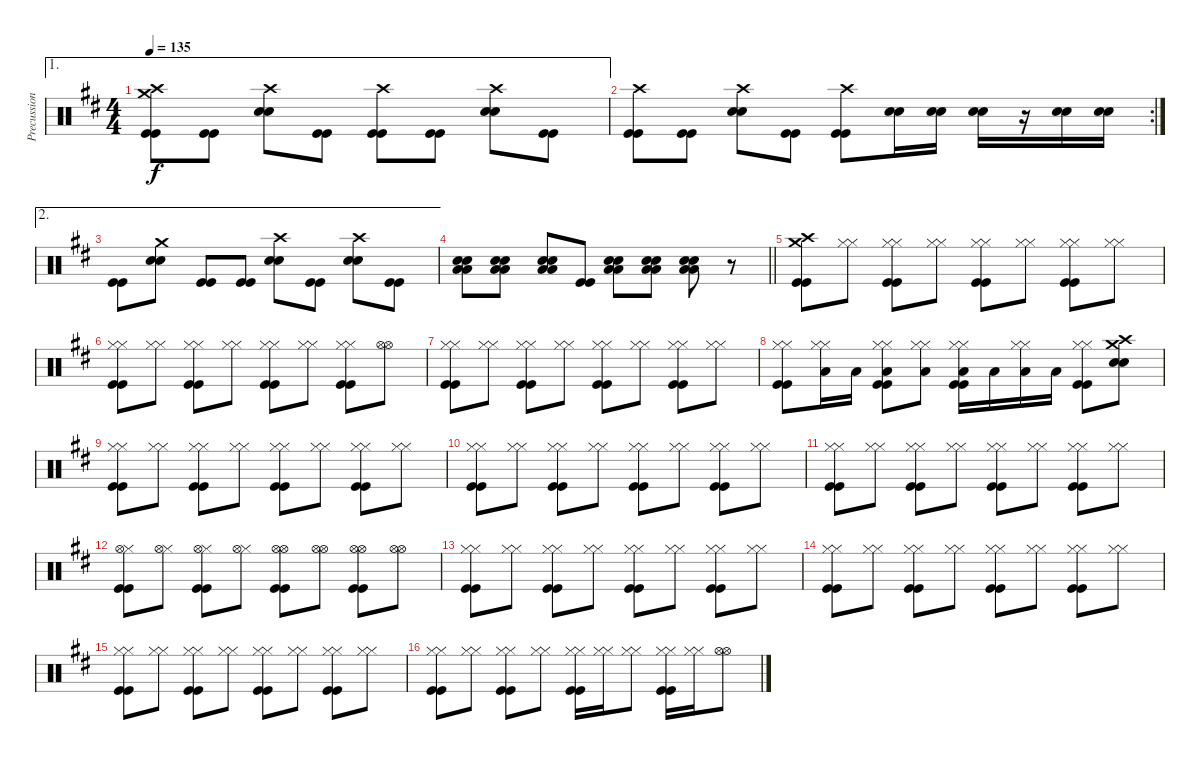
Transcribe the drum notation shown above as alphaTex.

\track ("Precussion" "Precussion") {instrument percussion}
\staff {score}
\articulation defaults
\ae 1
\ts (4 4)
\tempo 135
\clef neutral
\ks d
("Crash high (hit)" "Crash medium (hit)" "Kick (hit)" "Kick (hit)").8{dy f} ("Kick (hit)" "Kick (hit)").8 ("Crash high (hit)" "Electric Snare (hit)" "Electric Snare (hit)").8 ("Kick (hit)" "Kick (hit)").8 ("Crash high (hit)" "Kick (hit)" "Kick (hit)").8 ("Kick (hit)" "Kick (hit)").8 ("Crash high (hit)" "Electric Snare (hit)" "Electric Snare (hit)").8 ("Kick (hit)" "Kick (hit)").8 |
\rc 2
("Crash high (hit)" "Kick (hit)" "Kick (hit)").8 ("Kick (hit)" "Kick (hit)").8 ("Crash high (hit)" "Electric Snare (hit)" "Electric Snare (hit)").8 ("Kick (hit)" "Kick (hit)").8 ("Crash high (hit)" "Kick (hit)" "Kick (hit)").8 ("Electric Snare (hit)" "Electric Snare (hit)").16 ("Electric Snare (hit)" "Electric Snare (hit)").16 ("Electric Snare (hit)" "Electric Snare (hit)").16 r.16 ("Electric Snare (hit)" "Electric Snare (hit)").16 ("Electric Snare (hit)" "Electric Snare (hit)").16 |
\ae 2
("Kick (hit)" "Kick (hit)").8 ("Crash medium (hit)" "Electric Snare (hit)" "Electric Snare (hit)").8 ("Kick (hit)" "Kick (hit)").8 ("Kick (hit)" "Kick (hit)").8 ("Crash high (hit)" "Electric Snare (hit)" "Electric Snare (hit)").8 ("Kick (hit)" "Kick (hit)").8 ("Crash high (hit)" "Electric Snare (hit)" "Electric Snare (hit)").8 ("Kick (hit)" "Kick (hit)").8 |
\barLineRight lightlight
("Electric Snare (hit)" "Electric Snare (hit)" "Low Floor Tom (hit)" "Low Floor Tom (hit)").8 ("Electric Snare (hit)" "Electric Snare (hit)" "Low Floor Tom (hit)" "Low Floor Tom (hit)").8 ("Electric Snare (hit)" "Electric Snare (hit)" "Low Floor Tom (hit)" "Low Floor Tom (hit)").8 ("Kick (hit)" "Kick (hit)").8 ("Electric Snare (hit)" "Electric Snare (hit)" "Low Tom (hit)" "Low Tom (hit)").8 ("Electric Snare (hit)" "Electric Snare (hit)" "Low Tom (hit)" "Low Tom (hit)").8 ("Electric Snare (hit)" "Electric Snare (hit)" "Low Tom (hit)" "Low Tom (hit)").8 r.8 |
("Crash medium (hit)" "Crash high (hit)" "Kick (hit)" "Kick (hit)").8 ("Hi-Hat (closed)" "Hi-Hat (closed)").8 ("Hi-Hat (closed)" "Hi-Hat (closed)" "Kick (hit)" "Kick (hit)").8 ("Hi-Hat (closed)" "Hi-Hat (closed)").8 ("Hi-Hat (closed)" "Hi-Hat (closed)" "Kick (hit)" "Kick (hit)").8 ("Hi-Hat (closed)" "Hi-Hat (closed)").8 ("Hi-Hat (closed)" "Hi-Hat (closed)" "Kick (hit)" "Kick (hit)").8 ("Hi-Hat (closed)" "Hi-Hat (closed)").8 |
("Hi-Hat (closed)" "Hi-Hat (closed)" "Kick (hit)" "Kick (hit)").8 ("Hi-Hat (closed)" "Hi-Hat (closed)").8 ("Hi-Hat (closed)" "Hi-Hat (closed)" "Kick (hit)" "Kick (hit)").8 ("Hi-Hat (closed)" "Hi-Hat (closed)").8 ("Hi-Hat (closed)" "Hi-Hat (closed)" "Kick (hit)" "Kick (hit)").8 ("Hi-Hat (closed)" "Hi-Hat (closed)").8 ("Hi-Hat (closed)" "Hi-Hat (closed)" "Kick (hit)" "Kick (hit)").8 ("Hi-Hat (open)" "Hi-Hat (open)").8 |
("Hi-Hat (closed)" "Hi-Hat (closed)" "Kick (hit)" "Kick (hit)").8 ("Hi-Hat (closed)" "Hi-Hat (closed)").8 ("Hi-Hat (closed)" "Hi-Hat (closed)" "Kick (hit)" "Kick (hit)").8 ("Hi-Hat (closed)" "Hi-Hat (closed)").8 ("Hi-Hat (closed)" "Hi-Hat (closed)" "Kick (hit)" "Kick (hit)").8 ("Hi-Hat (closed)" "Hi-Hat (closed)").8 ("Hi-Hat (closed)" "Hi-Hat (closed)" "Kick (hit)" "Kick (hit)").8 ("Hi-Hat (closed)" "Hi-Hat (closed)").8 |
("Hi-Hat (closed)" "Hi-Hat (closed)" "Kick (hit)" "Kick (hit)").8 ("Hi-Hat (closed)" "Hi-Hat (closed)" "Low Tom (hit)").16 "Low Tom (hit)".16 ("Hi-Hat (closed)" "Hi-Hat (closed)" "Low Tom (hit)" "Kick (hit)" "Kick (hit)").8 ("Hi-Hat (closed)" "Hi-Hat (closed)" "Low Tom (hit)").8 ("Hi-Hat (closed)" "Hi-Hat (closed)" "Low Tom (hit)" "Kick (hit)" "Kick (hit)").16 "Low Tom (hit)".16 ("Hi-Hat (closed)" "Hi-Hat (closed)" "Low Floor Tom (hit)").16 "Low Floor Tom (hit)".16 ("Hi-Hat (closed)" "Hi-Hat (closed)" "Kick (hit)" "Kick (hit)").8 ("Crash medium (hit)" "Crash high (hit)" "Electric Snare (hit)" "Electric Snare (hit)").8 |
("Hi-Hat (closed)" "Hi-Hat (closed)" "Kick (hit)" "Kick (hit)").8 ("Hi-Hat (closed)" "Hi-Hat (closed)").8 ("Hi-Hat (closed)" "Hi-Hat (closed)" "Kick (hit)" "Kick (hit)").8 ("Hi-Hat (closed)" "Hi-Hat (closed)").8 ("Hi-Hat (closed)" "Hi-Hat (closed)" "Kick (hit)" "Kick (hit)").8 ("Hi-Hat (closed)" "Hi-Hat (closed)").8 ("Hi-Hat (closed)" "Hi-Hat (closed)" "Kick (hit)" "Kick (hit)").8 ("Hi-Hat (closed)" "Hi-Hat (closed)").8 |
("Hi-Hat (closed)" "Hi-Hat (closed)" "Kick (hit)" "Kick (hit)").8 ("Hi-Hat (closed)" "Hi-Hat (closed)").8 ("Hi-Hat (closed)" "Hi-Hat (closed)" "Kick (hit)" "Kick (hit)").8 ("Hi-Hat (closed)" "Hi-Hat (closed)").8 ("Hi-Hat (closed)" "Hi-Hat (closed)" "Kick (hit)" "Kick (hit)").8 ("Hi-Hat (closed)" "Hi-Hat (closed)").8 ("Hi-Hat (closed)" "Hi-Hat (closed)" "Kick (hit)" "Kick (hit)").8 ("Hi-Hat (closed)" "Hi-Hat (closed)").8 |
("Hi-Hat (closed)" "Hi-Hat (closed)" "Kick (hit)" "Kick (hit)").8 ("Hi-Hat (closed)" "Hi-Hat (closed)").8 ("Hi-Hat (closed)" "Hi-Hat (closed)" "Kick (hit)" "Kick (hit)").8 ("Hi-Hat (closed)" "Hi-Hat (closed)").8 ("Hi-Hat (closed)" "Hi-Hat (closed)" "Kick (hit)" "Kick (hit)").8 ("Hi-Hat (closed)" "Hi-Hat (closed)").8 ("Hi-Hat (closed)" "Hi-Hat (closed)" "Kick (hit)" "Kick (hit)").8 ("Hi-Hat (closed)" "Hi-Hat (closed)").8 |
("Hi-Hat (closed)" "Hi-Hat (open)" "Kick (hit)" "Kick (hit)").8 ("Hi-Hat (closed)" "Hi-Hat (open)").8 ("Hi-Hat (closed)" "Hi-Hat (open)" "Kick (hit)" "Kick (hit)").8 ("Hi-Hat (closed)" "Hi-Hat (open)").8 ("Hi-Hat (open)" "Hi-Hat (open)" "Kick (hit)" "Kick (hit)").8 ("Hi-Hat (open)" "Hi-Hat (open)").8 ("Hi-Hat (open)" "Hi-Hat (open)" "Kick (hit)" "Kick (hit)").8 ("Hi-Hat (open)" "Hi-Hat (open)").8 |
("Hi-Hat (closed)" "Hi-Hat (closed)" "Kick (hit)" "Kick (hit)").8 ("Hi-Hat (closed)" "Hi-Hat (closed)").8 ("Hi-Hat (closed)" "Hi-Hat (closed)" "Kick (hit)" "Kick (hit)").8 ("Hi-Hat (closed)" "Hi-Hat (closed)").8 ("Hi-Hat (closed)" "Hi-Hat (closed)" "Kick (hit)" "Kick (hit)").8 ("Hi-Hat (closed)" "Hi-Hat (closed)").8 ("Hi-Hat (closed)" "Hi-Hat (closed)" "Kick (hit)" "Kick (hit)").8 ("Hi-Hat (closed)" "Hi-Hat (closed)").8 |
("Hi-Hat (closed)" "Hi-Hat (closed)" "Kick (hit)" "Kick (hit)").8 ("Hi-Hat (closed)" "Hi-Hat (closed)").8 ("Hi-Hat (closed)" "Hi-Hat (closed)" "Kick (hit)" "Kick (hit)").8 ("Hi-Hat (closed)" "Hi-Hat (closed)").8 ("Hi-Hat (closed)" "Hi-Hat (closed)" "Kick (hit)" "Kick (hit)").8 ("Hi-Hat (closed)" "Hi-Hat (closed)").8 ("Hi-Hat (closed)" "Hi-Hat (closed)" "Kick (hit)" "Kick (hit)").8 ("Hi-Hat (closed)" "Hi-Hat (closed)").8 |
("Hi-Hat (closed)" "Hi-Hat (closed)" "Kick (hit)" "Kick (hit)").8 ("Hi-Hat (closed)" "Hi-Hat (closed)").8 ("Hi-Hat (closed)" "Hi-Hat (closed)" "Kick (hit)" "Kick (hit)").8 ("Hi-Hat (closed)" "Hi-Hat (closed)").8 ("Hi-Hat (closed)" "Hi-Hat (closed)" "Kick (hit)" "Kick (hit)").8 ("Hi-Hat (closed)" "Hi-Hat (closed)").8 ("Hi-Hat (closed)" "Hi-Hat (closed)" "Kick (hit)" "Kick (hit)").8 ("Hi-Hat (closed)" "Hi-Hat (closed)").8 |
("Hi-Hat (closed)" "Hi-Hat (closed)" "Kick (hit)" "Kick (hit)").8 ("Hi-Hat (closed)" "Hi-Hat (closed)").8 ("Hi-Hat (closed)" "Hi-Hat (closed)" "Kick (hit)" "Kick (hit)").8 ("Hi-Hat (closed)" "Hi-Hat (closed)").8 ("Hi-Hat (closed)" "Hi-Hat (closed)" "Kick (hit)" "Kick (hit)").16 ("Hi-Hat (closed)" "Hi-Hat (closed)").16 ("Hi-Hat (closed)" "Hi-Hat (closed)").8 ("Hi-Hat (closed)" "Hi-Hat (closed)" "Kick (hit)" "Kick (hit)").16 ("Hi-Hat (closed)" "Hi-Hat (closed)").16 ("Hi-Hat (open)" "Hi-Hat (open)").8
